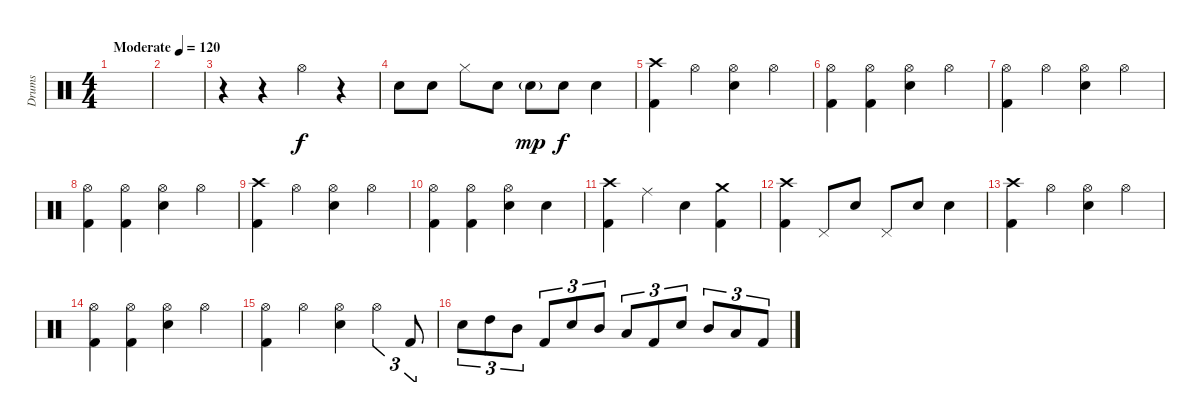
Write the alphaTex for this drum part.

\track ("Drums" "Drums") {instrument percussion}
\staff {score}
\articulation defaults
\ts (4 4)
\tempo (120 "Moderate")
\clef neutral
\ks c
|
|
r.4 r.4 "Hi-Hat (open)".4 r.4 |
"Snare (hit) 2".8 "Snare (hit) 2".8 "Hi-Hat (closed)".8 "Snare (hit) 2".8 "Snare (hit) 2"{g}.8{dy mp} "Snare (hit) 2".8{dy f} "Snare (hit) 2".4 |
("Kick (hit) 2" "Crash high (hit)").4 "Hi-Hat (open)".4 ("Hi-Hat (open)" "Snare (hit) 2").4 "Hi-Hat (open)".4 |
("Hi-Hat (open)" "Kick (hit) 2").4 ("Hi-Hat (open)" "Kick (hit) 2").4 ("Hi-Hat (open)" "Snare (hit) 2").4 "Hi-Hat (open)".4 |
("Hi-Hat (open)" "Kick (hit) 2").4 "Hi-Hat (open)".4 ("Hi-Hat (open)" "Snare (hit) 2").4 "Hi-Hat (open)".4 |
("Hi-Hat (open)" "Kick (hit) 2").4 ("Hi-Hat (open)" "Kick (hit) 2").4 ("Hi-Hat (open)" "Snare (hit) 2").4 "Hi-Hat (open)".4 |
("Kick (hit) 2" "Crash high (hit)").4 "Hi-Hat (open)".4 ("Hi-Hat (open)" "Snare (hit) 2").4 "Hi-Hat (open)".4 |
("Hi-Hat (open)" "Kick (hit) 2").4 ("Hi-Hat (open)" "Kick (hit) 2").4 ("Hi-Hat (open)" "Snare (hit) 2").4 "Snare (hit) 2".4 |
("Kick (hit) 2" "Crash high (hit)").4 "Ride (middle)".4 "Snare (hit) 2".4 ("Kick (hit) 2" "Crash medium (hit)").4 |
("Crash high (hit)" "Kick (hit) 2").4 "Pedal Hi-Hat (hit)".8 "Snare (hit) 2".8 "Pedal Hi-Hat (hit)".8 "Snare (hit) 2".8 "Snare (hit) 2".4 |
("Kick (hit) 2" "Crash high (hit)").4 "Hi-Hat (open)".4 ("Hi-Hat (open)" "Snare (hit) 2").4 "Hi-Hat (open)".4 |
("Hi-Hat (open)" "Kick (hit) 2").4 ("Hi-Hat (open)" "Kick (hit) 2").4 ("Hi-Hat (open)" "Snare (hit) 2").4 "Hi-Hat (open)".4 |
("Hi-Hat (open)" "Kick (hit) 2").4 "Hi-Hat (open)".4 ("Hi-Hat (open)" "Snare (hit) 2").4 "Hi-Hat (open)".4{tu (3 2)} "Kick (hit) 2".8{tu (3 2)} |
"Snare (hit) 2".8{tu (3 2)} "High Tom (hit)".8{tu (3 2)} "Mid Tom (hit)".8{tu (3 2)} "Kick (hit) 2".8{tu (3 2)} "Snare (hit) 2".8{tu (3 2)} "Mid Tom (hit)".8{tu (3 2)} "Low Tom (hit)".8{tu (3 2)} "Kick (hit) 2".8{tu (3 2)} "Snare (hit) 2".8{tu (3 2)} "Mid Tom (hit)".8{tu (3 2)} "Low Tom (hit)".8{tu (3 2)} "Kick (hit) 2".8{tu (3 2)}
